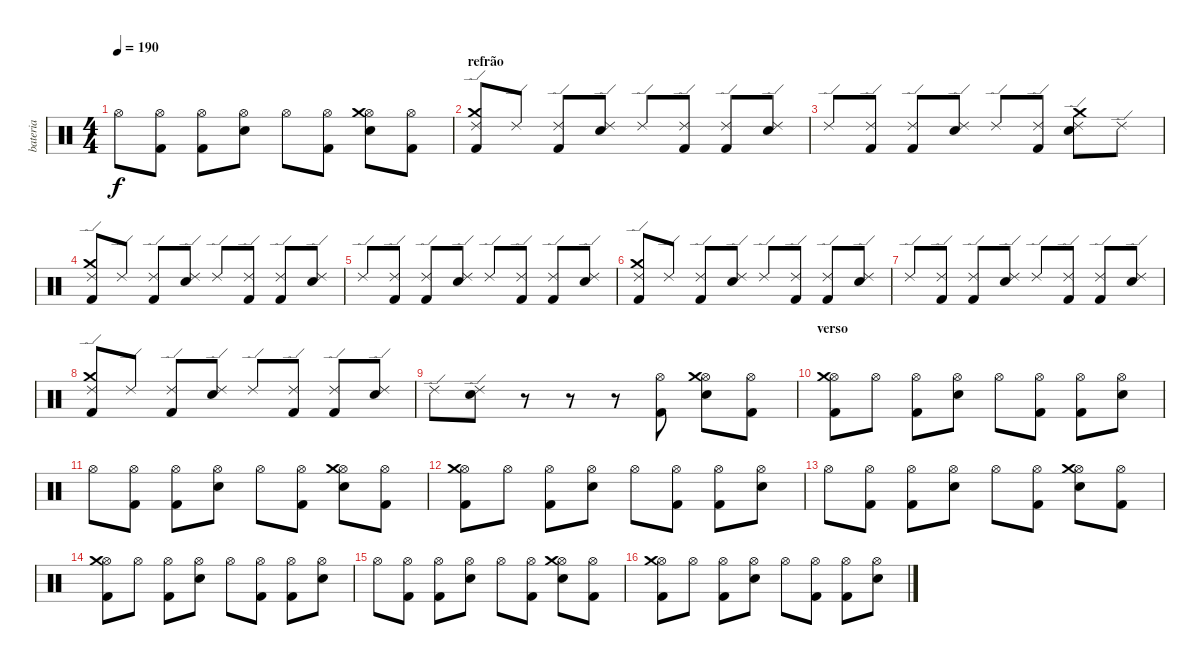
\track ("bateria" "bateria") {instrument percussion}
\staff {score}
\articulation defaults
\ts (4 4)
\tempo 190
\clef neutral
\ks c "Hi-Hat (open)".8{dy f}
("Hi-Hat (open)" "Kick (hit) 2").8 ("Hi-Hat (open)" "Kick (hit) 2").8 ("Hi-Hat (open)" "Electric Snare (hit)").8 "Hi-Hat (open)".8 ("Hi-Hat (open)" "Kick (hit) 2").8 ("Hi-Hat (open)" "Electric Snare (hit)" "Crash medium (hit)").8 ("Hi-Hat (open)" "Kick (hit) 2").8 |
\section ("" "refrão")
("Ride (edge) 2" "Kick (hit) 2" "Crash medium (hit)").8 "Ride (edge) 2".8 ("Ride (edge) 2" "Kick (hit) 2").8 ("Ride (edge) 2" "Electric Snare (hit)").8 "Ride (edge) 2".8 ("Ride (edge) 2" "Kick (hit) 2").8 ("Ride (edge) 2" "Kick (hit) 2").8 ("Ride (edge) 2" "Electric Snare (hit)").8 |
"Ride (edge) 2".8 ("Ride (edge) 2" "Kick (hit) 2").8 ("Ride (edge) 2" "Kick (hit) 2").8 ("Ride (edge) 2" "Electric Snare (hit)").8 "Ride (edge) 2".8 ("Ride (edge) 2" "Kick (hit) 2").8 ("Ride (edge) 2" "Electric Snare (hit)" "Crash medium (hit)").8 "Ride (edge) 2".8 |
("Ride (edge) 2" "Kick (hit) 2" "Crash medium (hit)").8 "Ride (edge) 2".8 ("Ride (edge) 2" "Kick (hit) 2").8 ("Ride (edge) 2" "Electric Snare (hit)").8 "Ride (edge) 2".8 ("Ride (edge) 2" "Kick (hit) 2").8 ("Ride (edge) 2" "Kick (hit) 2").8 ("Ride (edge) 2" "Electric Snare (hit)").8 |
"Ride (edge) 2".8 ("Ride (edge) 2" "Kick (hit) 2").8 ("Ride (edge) 2" "Kick (hit) 2").8 ("Ride (edge) 2" "Electric Snare (hit)").8 "Ride (edge) 2".8 ("Ride (edge) 2" "Kick (hit) 2").8 ("Ride (edge) 2" "Kick (hit) 2").8 ("Ride (edge) 2" "Electric Snare (hit)").8 |
("Ride (edge) 2" "Kick (hit) 2" "Crash medium (hit)").8 "Ride (edge) 2".8 ("Ride (edge) 2" "Kick (hit) 2").8 ("Ride (edge) 2" "Electric Snare (hit)").8 "Ride (edge) 2".8 ("Ride (edge) 2" "Kick (hit) 2").8 ("Ride (edge) 2" "Kick (hit) 2").8 ("Ride (edge) 2" "Electric Snare (hit)").8 |
"Ride (edge) 2".8 ("Ride (edge) 2" "Kick (hit) 2").8 ("Ride (edge) 2" "Kick (hit) 2").8 ("Ride (edge) 2" "Electric Snare (hit)").8 "Ride (edge) 2".8 ("Ride (edge) 2" "Kick (hit) 2").8 ("Ride (edge) 2" "Kick (hit) 2").8 ("Ride (edge) 2" "Electric Snare (hit)").8 |
("Ride (edge) 2" "Kick (hit) 2" "Crash medium (hit)").8 "Ride (edge) 2".8 ("Ride (edge) 2" "Kick (hit) 2").8 ("Ride (edge) 2" "Electric Snare (hit)").8 "Ride (edge) 2".8 ("Ride (edge) 2" "Kick (hit) 2").8 ("Ride (edge) 2" "Kick (hit) 2").8 ("Ride (edge) 2" "Electric Snare (hit)").8 |
"Ride (edge) 2".8 ("Ride (edge) 2" "Electric Snare (hit)").8 r.8 r.8 r.8 ("Hi-Hat (open)" "Kick (hit) 2").8 ("Hi-Hat (open)" "Electric Snare (hit)" "Crash medium (hit)").8 ("Hi-Hat (open)" "Kick (hit) 2").8 |
\section ("" "verso")
("Hi-Hat (open)" "Kick (hit) 2" "Crash medium (hit)").8 "Hi-Hat (open)".8 ("Hi-Hat (open)" "Kick (hit) 2").8 ("Hi-Hat (open)" "Electric Snare (hit)").8 "Hi-Hat (open)".8 ("Hi-Hat (open)" "Kick (hit) 2").8 ("Hi-Hat (open)" "Kick (hit) 2").8 ("Hi-Hat (open)" "Electric Snare (hit)").8 |
"Hi-Hat (open)".8 ("Hi-Hat (open)" "Kick (hit) 2").8 ("Hi-Hat (open)" "Kick (hit) 2").8 ("Hi-Hat (open)" "Electric Snare (hit)").8 "Hi-Hat (open)".8 ("Hi-Hat (open)" "Kick (hit) 2").8 ("Hi-Hat (open)" "Electric Snare (hit)" "Crash medium (hit)").8 ("Hi-Hat (open)" "Kick (hit) 2").8 |
("Hi-Hat (open)" "Kick (hit) 2" "Crash medium (hit)").8 "Hi-Hat (open)".8 ("Hi-Hat (open)" "Kick (hit) 2").8 ("Hi-Hat (open)" "Electric Snare (hit)").8 "Hi-Hat (open)".8 ("Hi-Hat (open)" "Kick (hit) 2").8 ("Hi-Hat (open)" "Kick (hit) 2").8 ("Hi-Hat (open)" "Electric Snare (hit)").8 |
"Hi-Hat (open)".8 ("Hi-Hat (open)" "Kick (hit) 2").8 ("Hi-Hat (open)" "Kick (hit) 2").8 ("Hi-Hat (open)" "Electric Snare (hit)").8 "Hi-Hat (open)".8 ("Hi-Hat (open)" "Kick (hit) 2").8 ("Hi-Hat (open)" "Electric Snare (hit)" "Crash medium (hit)").8 ("Hi-Hat (open)" "Kick (hit) 2").8 |
("Hi-Hat (open)" "Kick (hit) 2" "Crash medium (hit)").8 "Hi-Hat (open)".8 ("Hi-Hat (open)" "Kick (hit) 2").8 ("Hi-Hat (open)" "Electric Snare (hit)").8 "Hi-Hat (open)".8 ("Hi-Hat (open)" "Kick (hit) 2").8 ("Hi-Hat (open)" "Kick (hit) 2").8 ("Hi-Hat (open)" "Electric Snare (hit)").8 |
"Hi-Hat (open)".8 ("Hi-Hat (open)" "Kick (hit) 2").8 ("Hi-Hat (open)" "Kick (hit) 2").8 ("Hi-Hat (open)" "Electric Snare (hit)").8 "Hi-Hat (open)".8 ("Hi-Hat (open)" "Kick (hit) 2").8 ("Hi-Hat (open)" "Electric Snare (hit)" "Crash medium (hit)").8 ("Hi-Hat (open)" "Kick (hit) 2").8 |
("Hi-Hat (open)" "Kick (hit) 2" "Crash medium (hit)").8 "Hi-Hat (open)".8 ("Hi-Hat (open)" "Kick (hit) 2").8 ("Hi-Hat (open)" "Electric Snare (hit)").8 "Hi-Hat (open)".8 ("Hi-Hat (open)" "Kick (hit) 2").8 ("Hi-Hat (open)" "Kick (hit) 2").8 ("Hi-Hat (open)" "Electric Snare (hit)").8
